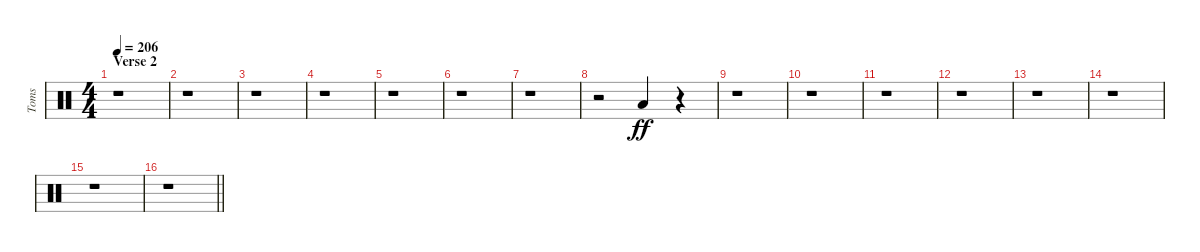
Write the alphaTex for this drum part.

\track ("Toms" "Toms") {instrument percussion}
\staff {score}
\articulation defaults
\ts (4 4)
\section ("" "Verse 2")
\tempo 206
\clef neutral
\ks c
r.1{dy ff} |
r.1 |
r.1 |
r.1 |
r.1 |
r.1 |
r.1 |
r.2{balance 4} "Low Tom (hit)".4{beam Up} r.4 |
r.1 |
r.1 |
r.1 |
r.1 |
r.1 |
r.1 |
r.1 |
\barLineRight lightlight
r.1
